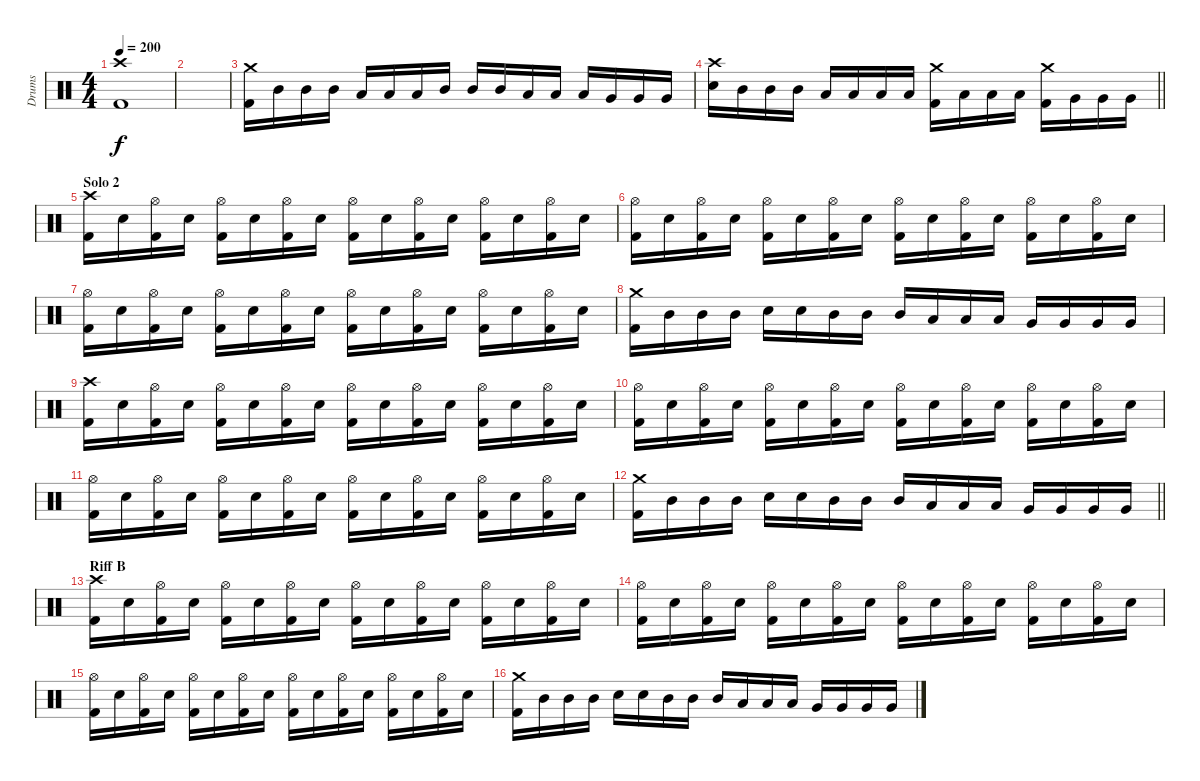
\track ("Drums" "Drums") {instrument percussion}
\staff {score}
\articulation defaults
\ts (4 4)
\tempo 200
\clef neutral
\ks c
("Crash high (hit)" "Kick (hit) 2").1{dy f} |
|
("Crash medium (hit)" "Kick (hit) 2").16 "Mid Tom (hit)".16 "Mid Tom (hit)".16 "Mid Tom (hit)".16 "Low Tom (hit)".16 "Low Tom (hit)".16 "Low Tom (hit)".16 "Mid Tom (hit)".16 "Mid Tom (hit)".16 "Mid Tom (hit)".16 "Low Tom (hit)".16 "Low Tom (hit)".16 "Low Tom (hit)".16 "Very Low Tom (hit)".16 "Very Low Tom (hit)".16 "Very Low Tom (hit)".16 |
\barLineRight lightlight
("Crash high (hit)" "Electric Snare (hit)").16 "Mid Tom (hit)".16 "Mid Tom (hit)".16 "Mid Tom (hit)".16 "Low Tom (hit)".16 "Low Tom (hit)".16 "Low Tom (hit)".16 "Low Tom (hit)".16 ("Crash medium (hit)" "Kick (hit) 2").16 "Low Tom (hit)".16 "Low Tom (hit)".16 "Low Tom (hit)".16 ("Crash medium (hit)" "Kick (hit) 2").16 "Very Low Tom (hit)".16 "Very Low Tom (hit)".16 "Very Low Tom (hit)".16 |
\section ("" "Solo 2")
("Crash high (hit)" "Kick (hit) 2").16 "Electric Snare (hit)".16 ("Hi-Hat (open)" "Kick (hit) 2").16 "Electric Snare (hit)".16 ("Hi-Hat (open)" "Kick (hit) 2").16 "Electric Snare (hit)".16 ("Hi-Hat (open)" "Kick (hit) 2").16 "Electric Snare (hit)".16 ("Hi-Hat (open)" "Kick (hit) 2").16 "Electric Snare (hit)".16 ("Hi-Hat (open)" "Kick (hit) 2").16 "Electric Snare (hit)".16 ("Hi-Hat (open)" "Kick (hit) 2").16 "Electric Snare (hit)".16 ("Hi-Hat (open)" "Kick (hit) 2").16 "Electric Snare (hit)".16 |
("Hi-Hat (open)" "Kick (hit) 2").16 "Electric Snare (hit)".16 ("Hi-Hat (open)" "Kick (hit) 2").16 "Electric Snare (hit)".16 ("Hi-Hat (open)" "Kick (hit) 2").16 "Electric Snare (hit)".16 ("Hi-Hat (open)" "Kick (hit) 2").16 "Electric Snare (hit)".16 ("Hi-Hat (open)" "Kick (hit) 2").16 "Electric Snare (hit)".16 ("Hi-Hat (open)" "Kick (hit) 2").16 "Electric Snare (hit)".16 ("Hi-Hat (open)" "Kick (hit) 2").16 "Electric Snare (hit)".16 ("Hi-Hat (open)" "Kick (hit) 2").16 "Electric Snare (hit)".16 |
("Hi-Hat (open)" "Kick (hit) 2").16 "Electric Snare (hit)".16 ("Hi-Hat (open)" "Kick (hit) 2").16 "Electric Snare (hit)".16 ("Hi-Hat (open)" "Kick (hit) 2").16 "Electric Snare (hit)".16 ("Hi-Hat (open)" "Kick (hit) 2").16 "Electric Snare (hit)".16 ("Hi-Hat (open)" "Kick (hit) 2").16 "Electric Snare (hit)".16 ("Hi-Hat (open)" "Kick (hit) 2").16 "Electric Snare (hit)".16 ("Hi-Hat (open)" "Kick (hit) 2").16 "Electric Snare (hit)".16 ("Hi-Hat (open)" "Kick (hit) 2").16 "Electric Snare (hit)".16 |
("Crash medium (hit)" "Kick (hit) 2").16 "Mid Tom (hit)".16 "Mid Tom (hit)".16 "Mid Tom (hit)".16 "Electric Snare (hit)".16 "Electric Snare (hit)".16 "Mid Tom (hit)".16 "Mid Tom (hit)".16 "Mid Tom (hit)".16 "Low Tom (hit)".16 "Low Tom (hit)".16 "Low Tom (hit)".16 "Very Low Tom (hit)".16 "Very Low Tom (hit)".16 "Very Low Tom (hit)".16 "Very Low Tom (hit)".16 |
("Crash high (hit)" "Kick (hit) 2").16 "Electric Snare (hit)".16 ("Hi-Hat (open)" "Kick (hit) 2").16 "Electric Snare (hit)".16 ("Hi-Hat (open)" "Kick (hit) 2").16 "Electric Snare (hit)".16 ("Hi-Hat (open)" "Kick (hit) 2").16 "Electric Snare (hit)".16 ("Hi-Hat (open)" "Kick (hit) 2").16 "Electric Snare (hit)".16 ("Hi-Hat (open)" "Kick (hit) 2").16 "Electric Snare (hit)".16 ("Hi-Hat (open)" "Kick (hit) 2").16 "Electric Snare (hit)".16 ("Hi-Hat (open)" "Kick (hit) 2").16 "Electric Snare (hit)".16 |
("Hi-Hat (open)" "Kick (hit) 2").16 "Electric Snare (hit)".16 ("Hi-Hat (open)" "Kick (hit) 2").16 "Electric Snare (hit)".16 ("Hi-Hat (open)" "Kick (hit) 2").16 "Electric Snare (hit)".16 ("Hi-Hat (open)" "Kick (hit) 2").16 "Electric Snare (hit)".16 ("Hi-Hat (open)" "Kick (hit) 2").16 "Electric Snare (hit)".16 ("Hi-Hat (open)" "Kick (hit) 2").16 "Electric Snare (hit)".16 ("Hi-Hat (open)" "Kick (hit) 2").16 "Electric Snare (hit)".16 ("Hi-Hat (open)" "Kick (hit) 2").16 "Electric Snare (hit)".16 |
("Hi-Hat (open)" "Kick (hit) 2").16 "Electric Snare (hit)".16 ("Hi-Hat (open)" "Kick (hit) 2").16 "Electric Snare (hit)".16 ("Hi-Hat (open)" "Kick (hit) 2").16 "Electric Snare (hit)".16 ("Hi-Hat (open)" "Kick (hit) 2").16 "Electric Snare (hit)".16 ("Hi-Hat (open)" "Kick (hit) 2").16 "Electric Snare (hit)".16 ("Hi-Hat (open)" "Kick (hit) 2").16 "Electric Snare (hit)".16 ("Hi-Hat (open)" "Kick (hit) 2").16 "Electric Snare (hit)".16 ("Hi-Hat (open)" "Kick (hit) 2").16 "Electric Snare (hit)".16 |
\barLineRight lightlight
("Crash medium (hit)" "Kick (hit) 2").16 "Mid Tom (hit)".16 "Mid Tom (hit)".16 "Mid Tom (hit)".16 "Electric Snare (hit)".16 "Electric Snare (hit)".16 "Mid Tom (hit)".16 "Mid Tom (hit)".16 "Mid Tom (hit)".16 "Low Tom (hit)".16 "Low Tom (hit)".16 "Low Tom (hit)".16 "Very Low Tom (hit)".16 "Very Low Tom (hit)".16 "Very Low Tom (hit)".16 "Very Low Tom (hit)".16 |
\section ("" "Riff B")
("Crash high (hit)" "Kick (hit) 2").16 "Electric Snare (hit)".16 ("Hi-Hat (open)" "Kick (hit) 2").16 "Electric Snare (hit)".16 ("Hi-Hat (open)" "Kick (hit) 2").16 "Electric Snare (hit)".16 ("Hi-Hat (open)" "Kick (hit) 2").16 "Electric Snare (hit)".16 ("Hi-Hat (open)" "Kick (hit) 2").16 "Electric Snare (hit)".16 ("Hi-Hat (open)" "Kick (hit) 2").16 "Electric Snare (hit)".16 ("Hi-Hat (open)" "Kick (hit) 2").16 "Electric Snare (hit)".16 ("Hi-Hat (open)" "Kick (hit) 2").16 "Electric Snare (hit)".16 |
("Hi-Hat (open)" "Kick (hit) 2").16 "Electric Snare (hit)".16 ("Hi-Hat (open)" "Kick (hit) 2").16 "Electric Snare (hit)".16 ("Hi-Hat (open)" "Kick (hit) 2").16 "Electric Snare (hit)".16 ("Hi-Hat (open)" "Kick (hit) 2").16 "Electric Snare (hit)".16 ("Hi-Hat (open)" "Kick (hit) 2").16 "Electric Snare (hit)".16 ("Hi-Hat (open)" "Kick (hit) 2").16 "Electric Snare (hit)".16 ("Hi-Hat (open)" "Kick (hit) 2").16 "Electric Snare (hit)".16 ("Hi-Hat (open)" "Kick (hit) 2").16 "Electric Snare (hit)".16 |
("Hi-Hat (open)" "Kick (hit) 2").16 "Electric Snare (hit)".16 ("Hi-Hat (open)" "Kick (hit) 2").16 "Electric Snare (hit)".16 ("Hi-Hat (open)" "Kick (hit) 2").16 "Electric Snare (hit)".16 ("Hi-Hat (open)" "Kick (hit) 2").16 "Electric Snare (hit)".16 ("Hi-Hat (open)" "Kick (hit) 2").16 "Electric Snare (hit)".16 ("Hi-Hat (open)" "Kick (hit) 2").16 "Electric Snare (hit)".16 ("Hi-Hat (open)" "Kick (hit) 2").16 "Electric Snare (hit)".16 ("Hi-Hat (open)" "Kick (hit) 2").16 "Electric Snare (hit)".16 |
("Crash medium (hit)" "Kick (hit) 2").16 "Mid Tom (hit)".16 "Mid Tom (hit)".16 "Mid Tom (hit)".16 "Electric Snare (hit)".16 "Electric Snare (hit)".16 "Mid Tom (hit)".16 "Mid Tom (hit)".16 "Mid Tom (hit)".16 "Low Tom (hit)".16 "Low Tom (hit)".16 "Low Tom (hit)".16 "Very Low Tom (hit)".16 "Very Low Tom (hit)".16 "Very Low Tom (hit)".16 "Very Low Tom (hit)".16
